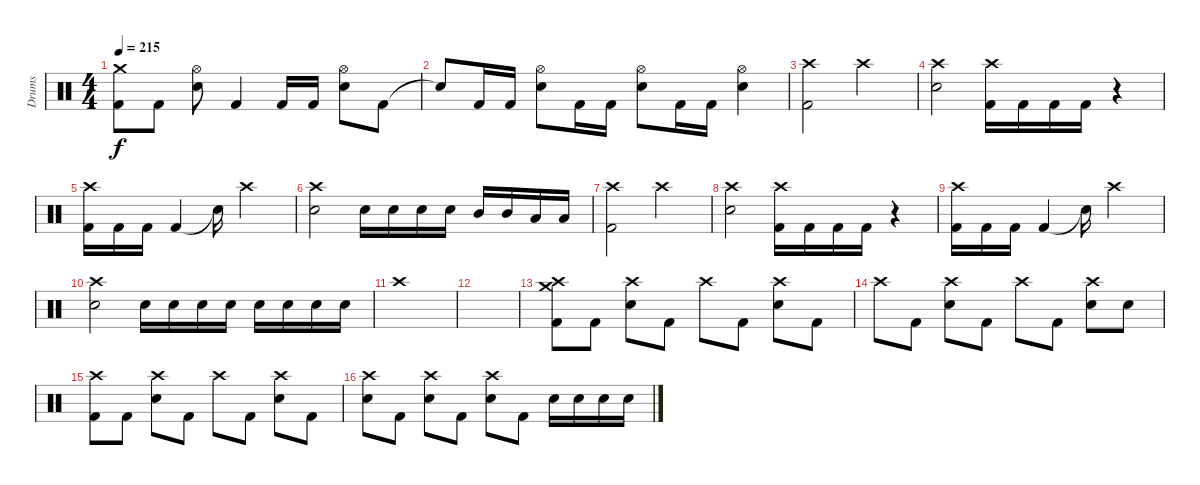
\track ("Drums" "Drums") {instrument percussion}
\staff {score}
\articulation defaults
\ts (4 4)
\tempo 215
\clef neutral
\ks c
("Crash medium (hit)" "Kick (hit) 2").8{dy f} "Kick (hit) 2".8 ("Hi-Hat (open)" "Electric Snare (hit)").8 "Kick (hit) 2".4 "Kick (hit) 2".16 "Kick (hit) 2".16 ("Hi-Hat (open)" "Electric Snare (hit)").8 "Kick (hit) 2".8 |
"Snare (hit)"{t}.8 "Kick (hit) 2".16 "Kick (hit) 2".16 ("Hi-Hat (open)" "Electric Snare (hit)").8 "Kick (hit) 2".16 "Kick (hit) 2".16 ("Hi-Hat (open)" "Electric Snare (hit)").8 "Kick (hit) 2".16 "Kick (hit) 2".16 ("Hi-Hat (open)" "Electric Snare (hit)").4 |
("Crash high (hit)" "Kick (hit) 2").2 "Crash high (hit)".2 |
("Crash high (hit)" "Electric Snare (hit)").2 ("Crash high (hit)" "Kick (hit) 2").16 "Kick (hit) 2".16 "Kick (hit) 2".16 "Kick (hit) 2".16 r.4 |
("Crash high (hit)" "Kick (hit) 2").16 "Kick (hit) 2".16 "Kick (hit) 2".16 "Kick (hit) 2".4 "Snare (hit)"{t}.16 "Crash high (hit)".2 |
("Crash high (hit)" "Electric Snare (hit)").2 "Electric Snare (hit)".16 "Electric Snare (hit)".16 "Electric Snare (hit)".16 "Electric Snare (hit)".16 "Mid Tom (hit)".16 "Mid Tom (hit)".16 "Low Tom (hit)".16 "Low Tom (hit)".16 |
("Crash high (hit)" "Kick (hit) 2").2 "Crash high (hit)".2 |
("Crash high (hit)" "Electric Snare (hit)").2 ("Crash high (hit)" "Kick (hit) 2").16 "Kick (hit) 2".16 "Kick (hit) 2".16 "Kick (hit) 2".16 r.4 |
("Crash high (hit)" "Kick (hit) 2").16 "Kick (hit) 2".16 "Kick (hit) 2".16 "Kick (hit) 2".4 "Snare (hit)"{t}.16 "Crash high (hit)".2 |
("Crash high (hit)" "Electric Snare (hit)").2 "Electric Snare (hit)".16 "Electric Snare (hit)".16 "Electric Snare (hit)".16 "Electric Snare (hit)".16 "Electric Snare (hit)".16 "Electric Snare (hit)".16 "Electric Snare (hit)".16 "Electric Snare (hit)".16 |
"Crash high (hit)".1 |
|
("Crash high (hit)" "Crash medium (hit)" "Kick (hit) 2").8 "Kick (hit) 2".8 ("Crash high (hit)" "Electric Snare (hit)").8 "Kick (hit) 2".8 "Crash high (hit)".8 "Kick (hit) 2".8 ("Crash high (hit)" "Electric Snare (hit)").8 "Kick (hit) 2".8 |
"Crash high (hit)".8 "Kick (hit) 2".8 ("Crash high (hit)" "Electric Snare (hit)").8 "Kick (hit) 2".8 "Crash high (hit)".8 "Kick (hit) 2".8 ("Crash high (hit)" "Electric Snare (hit)").8 "Electric Snare (hit)".8 |
("Crash high (hit)" "Kick (hit) 2").8 "Kick (hit) 2".8 ("Crash high (hit)" "Electric Snare (hit)").8 "Kick (hit) 2".8 "Crash high (hit)".8 "Kick (hit) 2".8 ("Crash high (hit)" "Electric Snare (hit)").8 "Kick (hit) 2".8 |
("Crash high (hit)" "Electric Snare (hit)").8 "Kick (hit) 2".8 ("Crash high (hit)" "Electric Snare (hit)").8 "Kick (hit) 2".8 ("Crash high (hit)" "Electric Snare (hit)").8 "Kick (hit) 2".8 "Electric Snare (hit)".16 "Electric Snare (hit)".16 "Electric Snare (hit)".16 "Electric Snare (hit)".16
